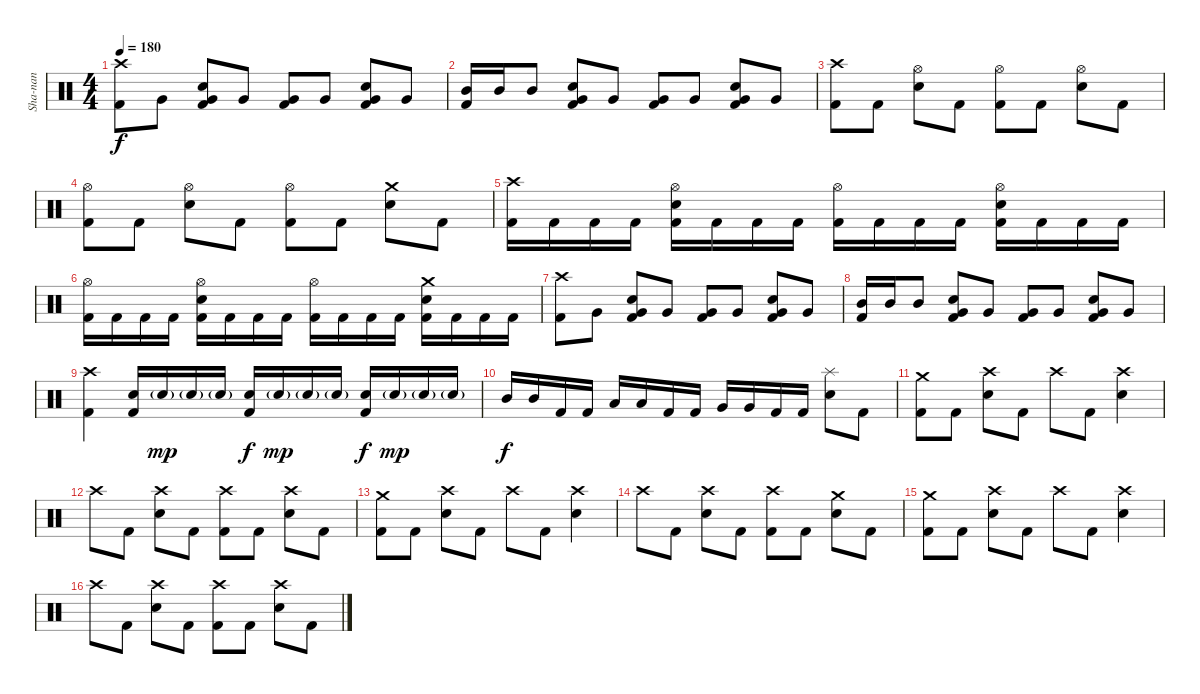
\track ("Sha-nan" "Sha-nan") {instrument percussion}
\staff {score}
\articulation defaults
\ts (4 4)
\tempo 180
\clef neutral
\ks c
("Crash high (hit)" "Kick (hit) 2").8{dy f} "Very Low Tom (hit)".8 ("Very Low Tom (hit)" "Snare (hit) 2" "Kick (hit) 2").8 "Very Low Tom (hit)".8 ("Very Low Tom (hit)" "Kick (hit) 2").8 "Very Low Tom (hit)".8 ("Very Low Tom (hit)" "Snare (hit) 2" "Kick (hit) 2").8 "Very Low Tom (hit)".8 |
("Mid Tom (hit)" "Kick (hit) 2").16 "Mid Tom (hit)".16 "Mid Tom (hit)".8 ("Very Low Tom (hit)" "Snare (hit) 2" "Kick (hit) 2").8 "Very Low Tom (hit)".8 ("Very Low Tom (hit)" "Kick (hit) 2").8 "Very Low Tom (hit)".8 ("Very Low Tom (hit)" "Snare (hit) 2" "Kick (hit) 2").8 "Very Low Tom (hit)".8 |
("Crash high (hit)" "Kick (hit) 2").8 "Kick (hit) 2".8 ("Hi-Hat (open)" "Snare (hit) 2").8 "Kick (hit) 2".8 ("Hi-Hat (open)" "Kick (hit) 2").8 "Kick (hit) 2".8 ("Hi-Hat (open)" "Snare (hit) 2").8 "Kick (hit) 2".8 |
("Hi-Hat (open)" "Kick (hit) 2").8 "Kick (hit) 2".8 ("Hi-Hat (open)" "Snare (hit) 2").8 "Kick (hit) 2".8 ("Hi-Hat (open)" "Kick (hit) 2").8 "Kick (hit) 2".8 ("Crash medium (hit)" "Snare (hit) 2").8 "Kick (hit) 2".8 |
("Crash high (hit)" "Kick (hit) 2").16 "Kick (hit) 2".16 "Kick (hit) 2".16 "Kick (hit) 2".16 ("Hi-Hat (open)" "Snare (hit) 2" "Kick (hit) 2").16 "Kick (hit) 2".16 "Kick (hit) 2".16 "Kick (hit) 2".16 ("Hi-Hat (open)" "Kick (hit) 2").16 "Kick (hit) 2".16 "Kick (hit) 2".16 "Kick (hit) 2".16 ("Hi-Hat (open)" "Snare (hit) 2" "Kick (hit) 2").16 "Kick (hit) 2".16 "Kick (hit) 2".16 "Kick (hit) 2".16 |
("Hi-Hat (open)" "Kick (hit) 2").16 "Kick (hit) 2".16 "Kick (hit) 2".16 "Kick (hit) 2".16 ("Hi-Hat (open)" "Snare (hit) 2" "Kick (hit) 2").16 "Kick (hit) 2".16 "Kick (hit) 2".16 "Kick (hit) 2".16 ("Hi-Hat (open)" "Kick (hit) 2").16 "Kick (hit) 2".16 "Kick (hit) 2".16 "Kick (hit) 2".16 ("Crash medium (hit)" "Snare (hit) 2" "Kick (hit) 2").16 "Kick (hit) 2".16 "Kick (hit) 2".16 "Kick (hit) 2".16 |
("Crash high (hit)" "Kick (hit) 2").8 "Very Low Tom (hit)".8 ("Very Low Tom (hit)" "Snare (hit) 2" "Kick (hit) 2").8 "Very Low Tom (hit)".8 ("Very Low Tom (hit)" "Kick (hit) 2").8 "Very Low Tom (hit)".8 ("Very Low Tom (hit)" "Snare (hit) 2" "Kick (hit) 2").8 "Very Low Tom (hit)".8 |
("Mid Tom (hit)" "Kick (hit) 2").16 "Mid Tom (hit)".16 "Mid Tom (hit)".8 ("Very Low Tom (hit)" "Snare (hit) 2" "Kick (hit) 2").8 "Very Low Tom (hit)".8 ("Very Low Tom (hit)" "Kick (hit) 2").8 "Very Low Tom (hit)".8 ("Very Low Tom (hit)" "Snare (hit) 2" "Kick (hit) 2").8 "Very Low Tom (hit)".8 |
("Crash high (hit)" "Kick (hit) 2").4 ("Snare (hit) 2" "Kick (hit) 2").16 "Snare (hit) 2"{g}.16{dy mp} "Snare (hit) 2"{g}.16 "Snare (hit) 2"{g}.16 ("Snare (hit) 2" "Kick (hit) 2").16{dy f} "Snare (hit) 2"{g}.16{dy mp} "Snare (hit) 2"{g}.16 "Snare (hit) 2"{g}.16 ("Snare (hit) 2" "Kick (hit) 2").16{dy f} "Snare (hit) 2"{g}.16{dy mp} "Snare (hit) 2"{g}.16 "Snare (hit) 2"{g}.16 |
"Mid Tom (hit)".16{dy f} "Mid Tom (hit)".16 "Kick (hit) 2".16 "Kick (hit) 2".16 "Low Tom (hit)".16 "Low Tom (hit)".16 "Kick (hit) 2".16 "Kick (hit) 2".16 "Very Low Tom (hit)".16 "Very Low Tom (hit)".16 "Kick (hit) 2".16 "Kick (hit) 2".16 ("Splash (hit)" "Snare (hit) 2").8 "Kick (hit) 2".8 |
("Crash medium (hit)" "Kick (hit) 2").8 "Kick (hit) 2".8 ("Crash high (hit)" "Snare (hit) 2").8 "Kick (hit) 2".8 "Crash high (hit)".8 "Kick (hit) 2".8 ("Crash high (hit)" "Snare (hit) 2").4 |
"Crash high (hit)".8 "Kick (hit) 2".8 ("Crash high (hit)" "Snare (hit) 2").8 "Kick (hit) 2".8 ("Crash high (hit)" "Kick (hit) 2").8 "Kick (hit) 2".8 ("Crash high (hit)" "Snare (hit) 2").8 "Kick (hit) 2".8 |
("Crash medium (hit)" "Kick (hit) 2").8 "Kick (hit) 2".8 ("Crash high (hit)" "Snare (hit) 2").8 "Kick (hit) 2".8 "Crash high (hit)".8 "Kick (hit) 2".8 ("Crash high (hit)" "Snare (hit) 2").4 |
"Crash high (hit)".8 "Kick (hit) 2".8 ("Crash high (hit)" "Snare (hit) 2").8 "Kick (hit) 2".8 ("Crash high (hit)" "Kick (hit) 2").8 "Kick (hit) 2".8 ("Crash medium (hit)" "Snare (hit) 2").8 "Kick (hit) 2".8 |
("Crash medium (hit)" "Kick (hit) 2").8 "Kick (hit) 2".8 ("Crash high (hit)" "Snare (hit) 2").8 "Kick (hit) 2".8 "Crash high (hit)".8 "Kick (hit) 2".8 ("Crash high (hit)" "Snare (hit) 2").4 |
"Crash high (hit)".8 "Kick (hit) 2".8 ("Crash high (hit)" "Snare (hit) 2").8 "Kick (hit) 2".8 ("Crash high (hit)" "Kick (hit) 2").8 "Kick (hit) 2".8 ("Crash high (hit)" "Snare (hit) 2").8 "Kick (hit) 2".8
